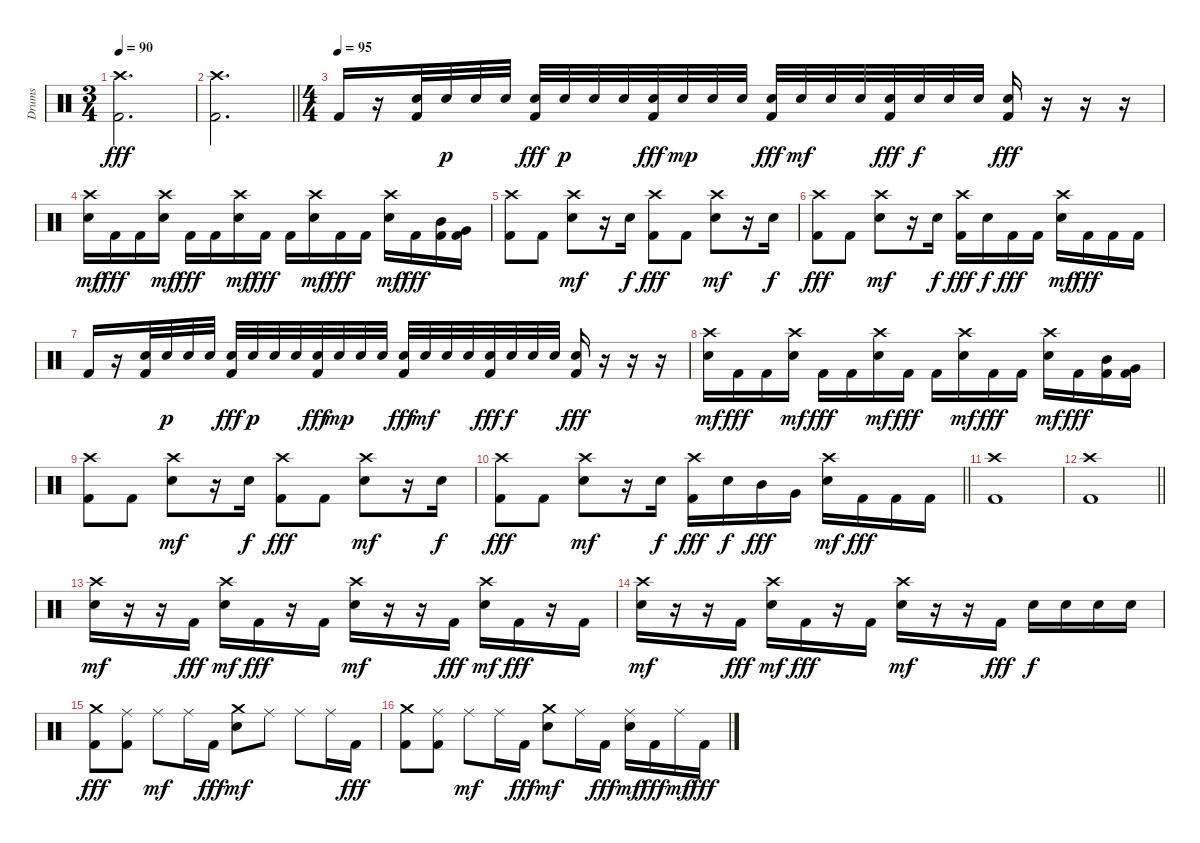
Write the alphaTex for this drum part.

\track ("Drums" "Drums") {instrument percussion}
\staff {score}
\articulation defaults
\ts (3 4)
\tempo 90
\clef neutral
\ks c
("Crash high (hit)" "Kick (hit) 2").2{d dy fff} |
\barLineRight lightlight
("Crash high (hit)" "Kick (hit) 2").2{d} |
\ts (4 4)
\tempo (95)
"Kick (hit) 2".16 r.16 ("Snare (hit) 2" "Kick (hit) 2").32 "Snare (hit) 2".32{dy p} "Snare (hit) 2".32 "Snare (hit) 2".32 ("Snare (hit) 2" "Kick (hit) 2").32{dy fff} "Snare (hit) 2".32{dy p} "Snare (hit) 2".32 "Snare (hit) 2".32 ("Snare (hit) 2" "Kick (hit) 2").32{dy fff} "Snare (hit) 2".32{dy mp} "Snare (hit) 2".32 "Snare (hit) 2".32 ("Snare (hit) 2" "Kick (hit) 2").32{dy fff} "Snare (hit) 2".32{dy mf} "Snare (hit) 2".32 "Snare (hit) 2".32 ("Snare (hit) 2" "Kick (hit) 2").32{dy fff} "Snare (hit) 2".32{dy f} "Snare (hit) 2".32 "Snare (hit) 2".32 ("Snare (hit) 2" "Kick (hit) 2").16{dy fff} r.16 r.16 r.16 |
("Crash high (hit)" "Snare (hit) 2").16{dy mf} "Kick (hit) 2".16{dy fff} "Kick (hit) 2".16 ("Crash high (hit)" "Snare (hit) 2").16{dy mf} "Kick (hit) 2".16{dy fff} "Kick (hit) 2".16 ("Crash high (hit)" "Snare (hit) 2").16{dy mf} "Kick (hit) 2".16{dy fff} "Kick (hit) 2".16 ("Crash high (hit)" "Snare (hit) 2").16{dy mf} "Kick (hit) 2".16{dy fff} "Kick (hit) 2".16 ("Crash high (hit)" "Snare (hit) 2").16{dy mf} "Kick (hit) 2".16{dy fff} ("Mid Tom (hit)" "Kick (hit) 2").16 ("Very Low Tom (hit)" "Kick (hit) 2").16 |
("Crash high (hit)" "Kick (hit) 2").8 "Kick (hit) 2".8 ("Crash high (hit)" "Snare (hit) 2").8{dy mf} r.16 "Snare (hit) 2".16{dy f} ("Crash high (hit)" "Kick (hit) 2").8{dy fff} "Kick (hit) 2".8 ("Crash high (hit)" "Snare (hit) 2").8{dy mf} r.16 "Snare (hit) 2".16{dy f} |
("Crash high (hit)" "Kick (hit) 2").8{dy fff} "Kick (hit) 2".8 ("Crash high (hit)" "Snare (hit) 2").8{dy mf} r.16 "Snare (hit) 2".16{dy f} ("Crash high (hit)" "Kick (hit) 2").16{dy fff} "Snare (hit) 2".16{dy f} "Kick (hit) 2".16{dy fff} "Kick (hit) 2".16 ("Crash high (hit)" "Snare (hit) 2").16{dy mf} "Kick (hit) 2".16{dy fff} "Kick (hit) 2".16 "Kick (hit) 2".16 |
"Kick (hit) 2".16 r.16 ("Snare (hit) 2" "Kick (hit) 2").32 "Snare (hit) 2".32{dy p} "Snare (hit) 2".32 "Snare (hit) 2".32 ("Snare (hit) 2" "Kick (hit) 2").32{dy fff} "Snare (hit) 2".32{dy p} "Snare (hit) 2".32 "Snare (hit) 2".32 ("Snare (hit) 2" "Kick (hit) 2").32{dy fff} "Snare (hit) 2".32{dy mp} "Snare (hit) 2".32 "Snare (hit) 2".32 ("Snare (hit) 2" "Kick (hit) 2").32{dy fff} "Snare (hit) 2".32{dy mf} "Snare (hit) 2".32 "Snare (hit) 2".32 ("Snare (hit) 2" "Kick (hit) 2").32{dy fff} "Snare (hit) 2".32{dy f} "Snare (hit) 2".32 "Snare (hit) 2".32 ("Snare (hit) 2" "Kick (hit) 2").16{dy fff} r.16 r.16 r.16 |
("Crash high (hit)" "Snare (hit) 2").16{dy mf} "Kick (hit) 2".16{dy fff} "Kick (hit) 2".16 ("Crash high (hit)" "Snare (hit) 2").16{dy mf} "Kick (hit) 2".16{dy fff} "Kick (hit) 2".16 ("Crash high (hit)" "Snare (hit) 2").16{dy mf} "Kick (hit) 2".16{dy fff} "Kick (hit) 2".16 ("Crash high (hit)" "Snare (hit) 2").16{dy mf} "Kick (hit) 2".16{dy fff} "Kick (hit) 2".16 ("Crash high (hit)" "Snare (hit) 2").16{dy mf} "Kick (hit) 2".16{dy fff} ("Mid Tom (hit)" "Kick (hit) 2").16 ("Very Low Tom (hit)" "Kick (hit) 2").16 |
("Crash high (hit)" "Kick (hit) 2").8 "Kick (hit) 2".8 ("Crash high (hit)" "Snare (hit) 2").8{dy mf} r.16 "Snare (hit) 2".16{dy f} ("Crash high (hit)" "Kick (hit) 2").8{dy fff} "Kick (hit) 2".8 ("Crash high (hit)" "Snare (hit) 2").8{dy mf} r.16 "Snare (hit) 2".16{dy f} |
\barLineRight lightlight
("Crash high (hit)" "Kick (hit) 2").8{dy fff} "Kick (hit) 2".8 ("Crash high (hit)" "Snare (hit) 2").8{dy mf} r.16 "Snare (hit) 2".16{dy f} ("Crash high (hit)" "Kick (hit) 2").16{dy fff} "Snare (hit) 2".16{dy f} "Mid Tom (hit)".16{dy fff} "Very Low Tom (hit)".16 ("Crash high (hit)" "Snare (hit) 2").16{dy mf} "Kick (hit) 2".16{dy fff} "Kick (hit) 2".16 "Kick (hit) 2".16 |
("Crash high (hit)" "Kick (hit) 2").1 |
\barLineRight lightlight
("Crash high (hit)" "Kick (hit) 2").1 |
("Crash high (hit)" "Snare (hit) 2").16{dy mf} r.16 r.16 "Kick (hit) 2".16{dy fff} ("Crash high (hit)" "Snare (hit) 2").16{dy mf} "Kick (hit) 2".16{dy fff} r.16 "Kick (hit) 2".16 ("Crash high (hit)" "Snare (hit) 2").16{dy mf} r.16 r.16 "Kick (hit) 2".16{dy fff} ("Crash high (hit)" "Snare (hit) 2").16{dy mf} "Kick (hit) 2".16{dy fff} r.16 "Kick (hit) 2".16 |
("Crash high (hit)" "Snare (hit) 2").16{dy mf} r.16 r.16 "Kick (hit) 2".16{dy fff} ("Crash high (hit)" "Snare (hit) 2").16{dy mf} "Kick (hit) 2".16{dy fff} r.16 "Kick (hit) 2".16 ("Crash high (hit)" "Snare (hit) 2").16{dy mf} r.16 r.16 "Kick (hit) 2".16{dy fff} "Snare (hit) 2".16{dy f} "Snare (hit) 2".16 "Snare (hit) 2".16 "Snare (hit) 2".16 |
("Crash medium (hit)" "Kick (hit) 2").8{dy fff} ("Ride (middle)" "Kick (hit) 2").8 "Ride (middle)".8{dy mf} "Ride (middle)".16 "Kick (hit) 2".16{dy fff} ("Crash medium (hit)" "Snare (hit) 2").8{dy mf} "Ride (middle)".8 "Ride (middle)".8 "Ride (middle)".16 "Kick (hit) 2".16{dy fff} |
("Crash medium (hit)" "Kick (hit) 2").8 ("Ride (middle)" "Kick (hit) 2").8 "Ride (middle)".8{dy mf} "Ride (middle)".16 "Kick (hit) 2".16{dy fff} ("Crash medium (hit)" "Snare (hit) 2").8{dy mf} "Ride (middle)".16 "Kick (hit) 2".16{dy fff} ("Ride (middle)" "Snare (hit) 2").16{dy mf} "Kick (hit) 2".16{dy fff} "Ride (middle)".16{dy mf} "Kick (hit) 2".16{dy fff}
